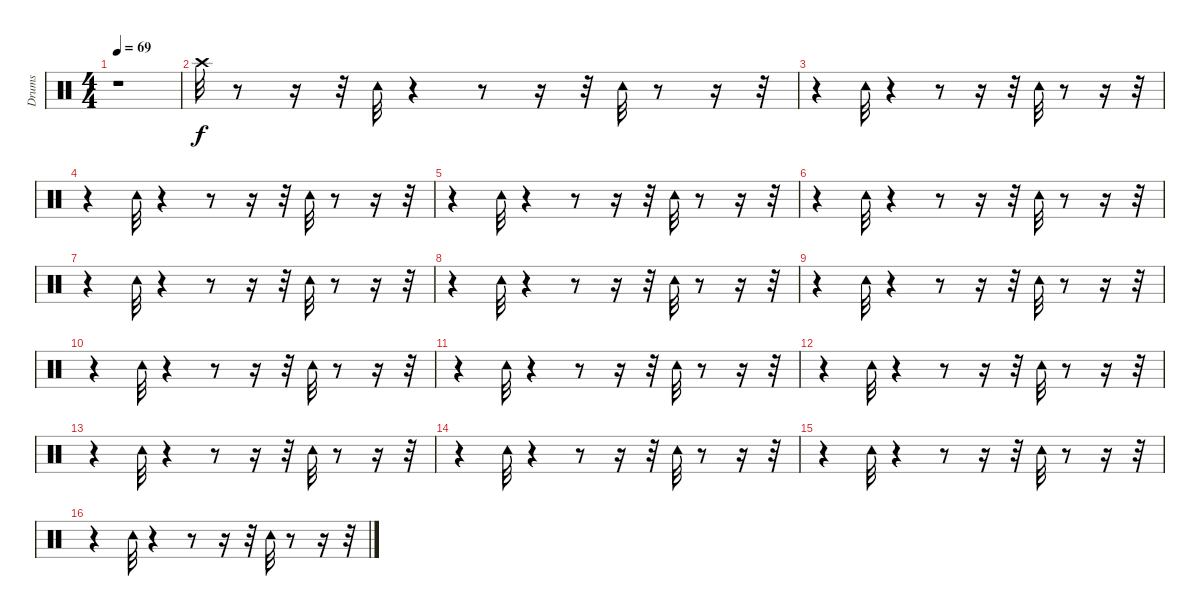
\track ("Drums" "Drums") {instrument percussion}
\staff {score}
\articulation defaults
\ts (4 4)
\tempo 69
\clef neutral
\ks c
r.1{dy f} |
"Crash high (hit)".32 r.8 r.16 r.32 "Tambourine (hit)".32 r.4 r.8 r.16 r.32 "Tambourine (hit)".32 r.8 r.16 r.32 |
r.4 "Tambourine (hit)".32 r.4 r.8 r.16 r.32 "Tambourine (hit)".32 r.8 r.16 r.32 |
r.4 "Tambourine (hit)".32 r.4 r.8 r.16 r.32 "Tambourine (hit)".32 r.8 r.16 r.32 |
r.4 "Tambourine (hit)".32 r.4 r.8 r.16 r.32 "Tambourine (hit)".32 r.8 r.16 r.32 |
r.4 "Tambourine (hit)".32 r.4 r.8 r.16 r.32 "Tambourine (hit)".32 r.8 r.16 r.32 |
r.4 "Tambourine (hit)".32 r.4 r.8 r.16 r.32 "Tambourine (hit)".32 r.8 r.16 r.32 |
r.4 "Tambourine (hit)".32 r.4 r.8 r.16 r.32 "Tambourine (hit)".32 r.8 r.16 r.32 |
r.4 "Tambourine (hit)".32 r.4 r.8 r.16 r.32 "Tambourine (hit)".32 r.8 r.16 r.32 |
r.4 "Tambourine (hit)".32 r.4 r.8 r.16 r.32 "Tambourine (hit)".32 r.8 r.16 r.32 |
r.4 "Tambourine (hit)".32 r.4 r.8 r.16 r.32 "Tambourine (hit)".32 r.8 r.16 r.32 |
r.4 "Tambourine (hit)".32 r.4 r.8 r.16 r.32 "Tambourine (hit)".32 r.8 r.16 r.32 |
r.4 "Tambourine (hit)".32 r.4 r.8 r.16 r.32 "Tambourine (hit)".32 r.8 r.16 r.32 |
r.4 "Tambourine (hit)".32 r.4 r.8 r.16 r.32 "Tambourine (hit)".32 r.8 r.16 r.32 |
r.4 "Tambourine (hit)".32 r.4 r.8 r.16 r.32 "Tambourine (hit)".32 r.8 r.16 r.32 |
r.4 "Tambourine (hit)".32 r.4 r.8 r.16 r.32 "Tambourine (hit)".32 r.8 r.16 r.32
